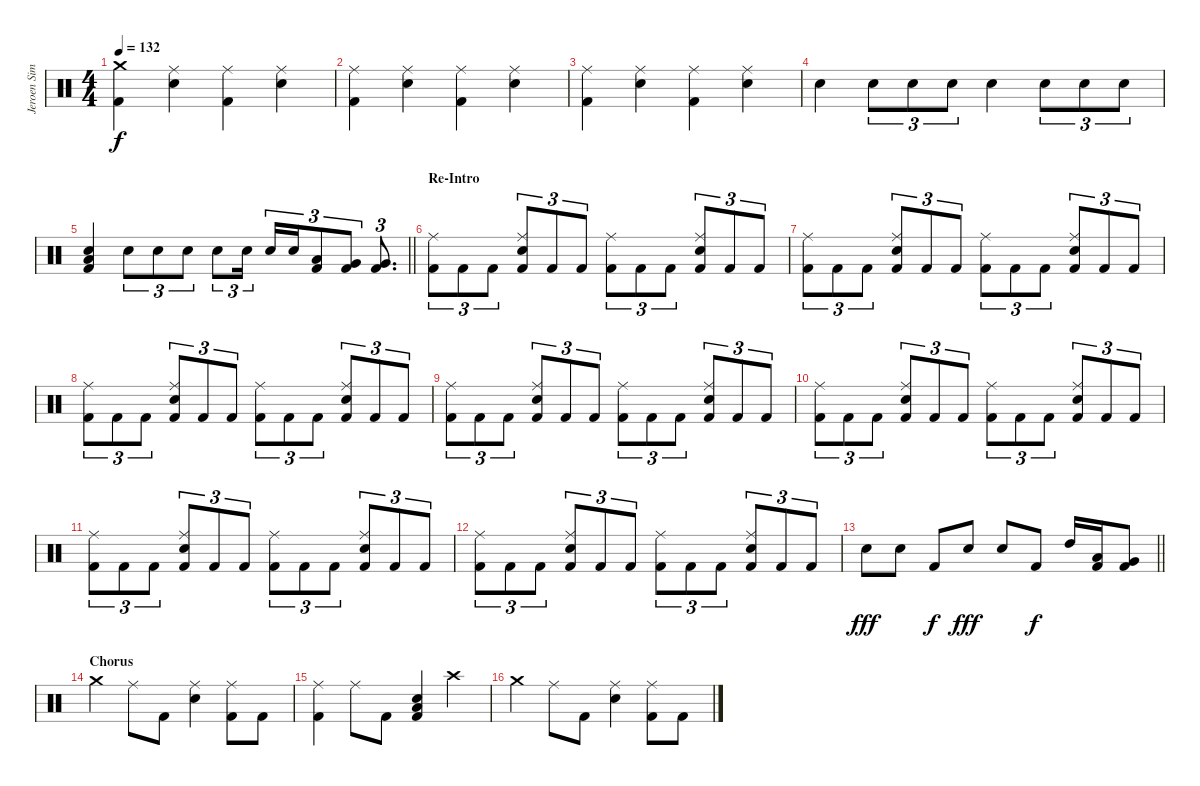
\track ("Jeroen Simons" "Jeroen Sim") {instrument percussion}
\staff {score}
\articulation defaults
\ts (4 4)
\tempo 132
\clef neutral
\ks c
("Crash medium (hit)" "Kick (hit) 2").4{dy f} ("Ride (middle)" "Electric Snare (hit)").4 ("Ride (middle)" "Kick (hit) 2").4 ("Ride (middle)" "Electric Snare (hit)").4 |
("Ride (middle)" "Kick (hit) 2").4 ("Ride (middle)" "Electric Snare (hit)").4 ("Ride (middle)" "Kick (hit) 2").4 ("Ride (middle)" "Electric Snare (hit)").4 |
("Ride (middle)" "Kick (hit) 2").4 ("Ride (middle)" "Electric Snare (hit)").4 ("Ride (middle)" "Kick (hit) 2").4 ("Ride (middle)" "Electric Snare (hit)").4 |
"Electric Snare (hit)".4 "Electric Snare (hit)".8{tu (3 2)} "Electric Snare (hit)".8{tu (3 2)} "Electric Snare (hit)".8{tu (3 2)} "Electric Snare (hit)".4 "Electric Snare (hit)".8{tu (3 2)} "Electric Snare (hit)".8{tu (3 2)} "Electric Snare (hit)".8{tu (3 2)} |
\barLineRight lightlight
("Low Tom (hit)" "Electric Snare (hit)" "Kick (hit) 2").4 "Electric Snare (hit)".8{tu (3 2)} "Electric Snare (hit)".8{tu (3 2)} "Electric Snare (hit)".8{tu (3 2)} "Electric Snare (hit)".8{tu (3 2)} "Electric Snare (hit)".16{tu (3 2) beam splitsecondary} "Electric Snare (hit)".16{tu (3 2)} "Electric Snare (hit)".16{tu (3 2)} ("Low Tom (hit)" "Kick (hit) 2").8{tu (3 2)} ("Very Low Tom (hit)" "Kick (hit) 2").8{tu (3 2)} ("Very Low Tom (hit)" "Kick (hit) 2").8{d tu (3 2)} |
\section ("" "Re-Intro")
("Ride (middle)" "Kick (hit) 2").8{tu (3 2)} "Kick (hit) 2".8{tu (3 2)} "Kick (hit) 2".8{tu (3 2)} ("Ride (middle)" "Electric Snare (hit)" "Kick (hit) 2").8{tu (3 2)} "Kick (hit) 2".8{tu (3 2)} "Kick (hit) 2".8{tu (3 2)} ("Ride (middle)" "Kick (hit) 2").8{tu (3 2)} "Kick (hit) 2".8{tu (3 2)} "Kick (hit) 2".8{tu (3 2)} ("Ride (middle)" "Electric Snare (hit)" "Kick (hit) 2").8{tu (3 2)} "Kick (hit) 2".8{tu (3 2)} "Kick (hit) 2".8{tu (3 2)} |
("Ride (middle)" "Kick (hit) 2").8{tu (3 2)} "Kick (hit) 2".8{tu (3 2)} "Kick (hit) 2".8{tu (3 2)} ("Ride (middle)" "Electric Snare (hit)" "Kick (hit) 2").8{tu (3 2)} "Kick (hit) 2".8{tu (3 2)} "Kick (hit) 2".8{tu (3 2)} ("Ride (middle)" "Kick (hit) 2").8{tu (3 2)} "Kick (hit) 2".8{tu (3 2)} "Kick (hit) 2".8{tu (3 2)} ("Ride (middle)" "Electric Snare (hit)" "Kick (hit) 2").8{tu (3 2)} "Kick (hit) 2".8{tu (3 2)} "Kick (hit) 2".8{tu (3 2)} |
("Ride (middle)" "Kick (hit) 2").8{tu (3 2)} "Kick (hit) 2".8{tu (3 2)} "Kick (hit) 2".8{tu (3 2)} ("Ride (middle)" "Electric Snare (hit)" "Kick (hit) 2").8{tu (3 2)} "Kick (hit) 2".8{tu (3 2)} "Kick (hit) 2".8{tu (3 2)} ("Ride (middle)" "Kick (hit) 2").8{tu (3 2)} "Kick (hit) 2".8{tu (3 2)} "Kick (hit) 2".8{tu (3 2)} ("Ride (middle)" "Electric Snare (hit)" "Kick (hit) 2").8{tu (3 2)} "Kick (hit) 2".8{tu (3 2)} "Kick (hit) 2".8{tu (3 2)} |
("Ride (middle)" "Kick (hit) 2").8{tu (3 2)} "Kick (hit) 2".8{tu (3 2)} "Kick (hit) 2".8{tu (3 2)} ("Ride (middle)" "Electric Snare (hit)" "Kick (hit) 2").8{tu (3 2)} "Kick (hit) 2".8{tu (3 2)} "Kick (hit) 2".8{tu (3 2)} ("Ride (middle)" "Kick (hit) 2").8{tu (3 2)} "Kick (hit) 2".8{tu (3 2)} "Kick (hit) 2".8{tu (3 2)} ("Ride (middle)" "Electric Snare (hit)" "Kick (hit) 2").8{tu (3 2)} "Kick (hit) 2".8{tu (3 2)} "Kick (hit) 2".8{tu (3 2)} |
("Ride (middle)" "Kick (hit) 2").8{tu (3 2)} "Kick (hit) 2".8{tu (3 2)} "Kick (hit) 2".8{tu (3 2)} ("Ride (middle)" "Electric Snare (hit)" "Kick (hit) 2").8{tu (3 2)} "Kick (hit) 2".8{tu (3 2)} "Kick (hit) 2".8{tu (3 2)} ("Ride (middle)" "Kick (hit) 2").8{tu (3 2)} "Kick (hit) 2".8{tu (3 2)} "Kick (hit) 2".8{tu (3 2)} ("Ride (middle)" "Electric Snare (hit)" "Kick (hit) 2").8{tu (3 2)} "Kick (hit) 2".8{tu (3 2)} "Kick (hit) 2".8{tu (3 2)} |
("Ride (middle)" "Kick (hit) 2").8{tu (3 2)} "Kick (hit) 2".8{tu (3 2)} "Kick (hit) 2".8{tu (3 2)} ("Ride (middle)" "Electric Snare (hit)" "Kick (hit) 2").8{tu (3 2)} "Kick (hit) 2".8{tu (3 2)} "Kick (hit) 2".8{tu (3 2)} ("Ride (middle)" "Kick (hit) 2").8{tu (3 2)} "Kick (hit) 2".8{tu (3 2)} "Kick (hit) 2".8{tu (3 2)} ("Ride (middle)" "Electric Snare (hit)" "Kick (hit) 2").8{tu (3 2)} "Kick (hit) 2".8{tu (3 2)} "Kick (hit) 2".8{tu (3 2)} |
("Ride (middle)" "Kick (hit) 2").8{tu (3 2)} "Kick (hit) 2".8{tu (3 2)} "Kick (hit) 2".8{tu (3 2)} ("Ride (middle)" "Electric Snare (hit)" "Kick (hit) 2").8{tu (3 2)} "Kick (hit) 2".8{tu (3 2)} "Kick (hit) 2".8{tu (3 2)} ("Ride (middle)" "Kick (hit) 2").8{tu (3 2)} "Kick (hit) 2".8{tu (3 2)} "Kick (hit) 2".8{tu (3 2)} ("Ride (middle)" "Electric Snare (hit)" "Kick (hit) 2").8{tu (3 2)} "Kick (hit) 2".8{tu (3 2)} "Kick (hit) 2".8{tu (3 2)} |
\barLineRight lightlight "Electric Snare (hit)".8{dy fff} "Electric Snare (hit)".8 "Kick (hit) 2".8{dy f} "Electric Snare (hit)".8{dy fff} "Electric Snare (hit)".8 "Kick (hit) 2".8{dy f} "High Tom (hit)".16
("Low Tom (hit)" "Kick (hit) 2").16 ("Very Low Tom (hit)" "Kick (hit) 2").8 |
\section ("" "Chorus")
"Crash medium (hit)".4 "Ride (middle)".8 "Kick (hit) 2".8 ("Ride (middle)" "Electric Snare (hit)").4 ("Ride (middle)" "Kick (hit) 2").8 "Kick (hit) 2".8 |
("Ride (middle)" "Kick (hit) 2").4 "Ride (middle)".8 "Kick (hit) 2".8 ("Low Tom (hit)" "Electric Snare (hit)" "Kick (hit) 2").4 "Crash high (hit)".4 |
"Crash medium (hit)".4 "Ride (middle)".8 "Kick (hit) 2".8 ("Ride (middle)" "Electric Snare (hit)").4 ("Ride (middle)" "Kick (hit) 2").8 "Kick (hit) 2".8
